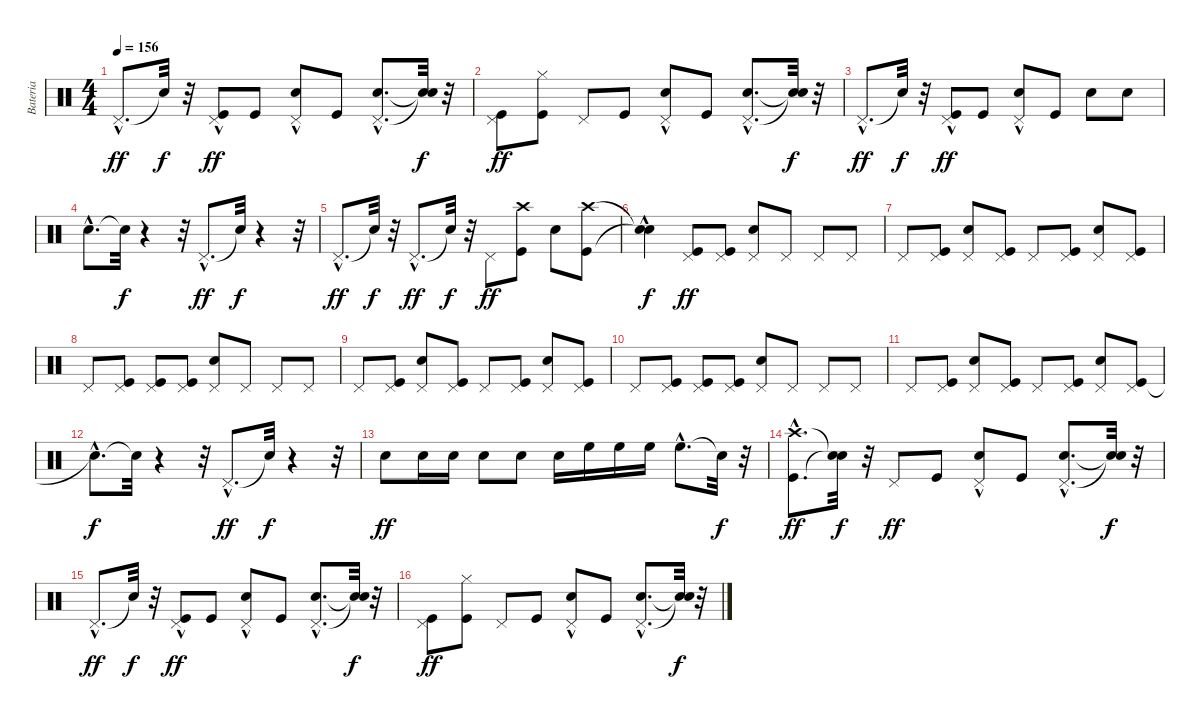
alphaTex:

\track ("Bateria" "Bateria") {instrument percussion}
\staff {score}
\articulation defaults
\ts (4 4)
\tempo 156
\clef neutral
\ks c "Pedal Hi-Hat (hit)"{hac}.8{d dy ff} "Snare (hit)"{t}.32{dy f}
r.32 ("Kick (hit)" "Pedal Hi-Hat (hit)"{hac}).8{dy ff} "Kick (hit)".8 ("Snare (hit) 2" "Pedal Hi-Hat (hit)"{hac}).8 "Kick (hit)".8 ("Snare (hit) 2"{hac} "Pedal Hi-Hat (hit)"{hac}).8{d} ("Snare (hit)"{t} "Snare (hit)"{t}).32{dy f} r.32 |
("Kick (hit)" "Pedal Hi-Hat (hit)").8{dy ff} ("Kick (hit)" "Hi-Hat (closed)").8 "Pedal Hi-Hat (hit)".8 "Kick (hit)".8 ("Snare (hit) 2" "Pedal Hi-Hat (hit)"{hac}).8 "Kick (hit)".8 ("Snare (hit) 2"{hac} "Pedal Hi-Hat (hit)"{hac}).8{d} ("Snare (hit)"{t} "Snare (hit)"{t}).32{dy f} r.32 |
"Pedal Hi-Hat (hit)"{hac}.8{d dy ff} "Snare (hit)"{t}.32{dy f} r.32 ("Kick (hit)" "Pedal Hi-Hat (hit)"{hac}).8{dy ff} "Kick (hit)".8 ("Snare (hit) 2" "Pedal Hi-Hat (hit)"{hac}).8 "Kick (hit)".8 "Snare (hit) 2".8 "Snare (hit) 2".8 |
"Snare (hit) 2"{hac}.8{d} "Snare (hit)"{t}.32{dy f} r.4 r.32 "Pedal Hi-Hat (hit)"{hac}.8{d dy ff} "Snare (hit)"{t}.32{dy f} r.4 r.32 |
"Pedal Hi-Hat (hit)"{hac}.8{d dy ff} "Snare (hit)"{t}.32{dy f} r.32 "Pedal Hi-Hat (hit)"{hac}.8{d dy ff} "Snare (hit)"{t}.32{dy f} r.32 "Pedal Hi-Hat (hit)".8{dy ff} ("Kick (hit)" "Crash high (hit)").8 "Snare (hit) 2".8 ("Kick (hit)" "Crash high (hit)").8 |
("Snare (hit)"{hac t} "Snare (hit)"{t}).4{dy f} ("Kick (hit)" "Pedal Hi-Hat (hit)").8{dy ff} ("Kick (hit)" "Pedal Hi-Hat (hit)").8 ("Snare (hit) 2" "Pedal Hi-Hat (hit)").8 "Pedal Hi-Hat (hit)".8 "Pedal Hi-Hat (hit)".8 "Pedal Hi-Hat (hit)".8 |
"Pedal Hi-Hat (hit)".8 ("Kick (hit)" "Pedal Hi-Hat (hit)").8 ("Snare (hit) 2" "Pedal Hi-Hat (hit)").8 ("Kick (hit)" "Pedal Hi-Hat (hit)").8 "Pedal Hi-Hat (hit)".8 ("Kick (hit)" "Pedal Hi-Hat (hit)").8 ("Snare (hit) 2" "Pedal Hi-Hat (hit)").8 ("Kick (hit)" "Pedal Hi-Hat (hit)").8 |
"Pedal Hi-Hat (hit)".8 ("Kick (hit)" "Pedal Hi-Hat (hit)").8 ("Kick (hit)" "Pedal Hi-Hat (hit)").8 ("Kick (hit)" "Pedal Hi-Hat (hit)").8 ("Snare (hit) 2" "Pedal Hi-Hat (hit)").8 "Pedal Hi-Hat (hit)".8 "Pedal Hi-Hat (hit)".8 "Pedal Hi-Hat (hit)".8 |
"Pedal Hi-Hat (hit)".8 ("Kick (hit)" "Pedal Hi-Hat (hit)").8 ("Snare (hit) 2" "Pedal Hi-Hat (hit)").8 ("Kick (hit)" "Pedal Hi-Hat (hit)").8 "Pedal Hi-Hat (hit)".8 ("Kick (hit)" "Pedal Hi-Hat (hit)").8 ("Snare (hit) 2" "Pedal Hi-Hat (hit)").8 ("Kick (hit)" "Pedal Hi-Hat (hit)").8 |
"Pedal Hi-Hat (hit)".8 ("Kick (hit)" "Pedal Hi-Hat (hit)").8 ("Kick (hit)" "Pedal Hi-Hat (hit)").8 ("Kick (hit)" "Pedal Hi-Hat (hit)").8 ("Snare (hit) 2" "Pedal Hi-Hat (hit)").8 "Pedal Hi-Hat (hit)".8 "Pedal Hi-Hat (hit)".8 "Pedal Hi-Hat (hit)".8 |
"Pedal Hi-Hat (hit)".8 ("Kick (hit)" "Pedal Hi-Hat (hit)").8 ("Snare (hit) 2" "Pedal Hi-Hat (hit)").8 ("Kick (hit)" "Pedal Hi-Hat (hit)").8 "Pedal Hi-Hat (hit)".8 ("Kick (hit)" "Pedal Hi-Hat (hit)").8 ("Snare (hit) 2" "Pedal Hi-Hat (hit)").8 ("Kick (hit)" "Pedal Hi-Hat (hit)").8 |
"Snare (hit)"{hac t}.8{d dy f} "Snare (hit)"{t}.32 r.4 r.32 "Pedal Hi-Hat (hit)"{hac}.8{d dy ff} "Snare (hit)"{t}.32{dy f} r.4 r.32 |
"Snare (hit) 2".8{dy ff} "Snare (hit) 2".16 "Snare (hit) 2".16 "Snare (hit) 2".8 "Snare (hit) 2".8 "Snare (hit) 2".16 "High Floor Tom (hit)".16 "High Floor Tom (hit)".16 "High Floor Tom (hit)".16 "High Floor Tom (hit)"{hac}.8{d} "Snare (hit)"{t}.32{dy f} r.32 |
("Kick (hit)"{hac} "Crash high (hit)"{hac}).8{d dy ff} ("Snare (hit)"{t} "Snare (hit)"{t}).32{dy f} r.32 "Pedal Hi-Hat (hit)".8{dy ff} "Kick (hit)".8 ("Snare (hit) 2" "Pedal Hi-Hat (hit)"{hac}).8 "Kick (hit)".8 ("Snare (hit) 2"{hac} "Pedal Hi-Hat (hit)"{hac}).8{d} ("Snare (hit)"{t} "Snare (hit)"{t}).32{dy f} r.32 |
"Pedal Hi-Hat (hit)"{hac}.8{d dy ff} "Snare (hit)"{t}.32{dy f} r.32 ("Kick (hit)" "Pedal Hi-Hat (hit)"{hac}).8{dy ff} "Kick (hit)".8 ("Snare (hit) 2" "Pedal Hi-Hat (hit)"{hac}).8 "Kick (hit)".8 ("Snare (hit) 2"{hac} "Pedal Hi-Hat (hit)"{hac}).8{d} ("Snare (hit)"{t} "Snare (hit)"{t}).32{dy f} r.32 |
("Kick (hit)" "Pedal Hi-Hat (hit)").8{dy ff} ("Kick (hit)" "Hi-Hat (closed)").8 "Pedal Hi-Hat (hit)".8 "Kick (hit)".8 ("Snare (hit) 2" "Pedal Hi-Hat (hit)"{hac}).8 "Kick (hit)".8 ("Snare (hit) 2"{hac} "Pedal Hi-Hat (hit)"{hac}).8{d} ("Snare (hit)"{t} "Snare (hit)"{t}).32{dy f} r.32
